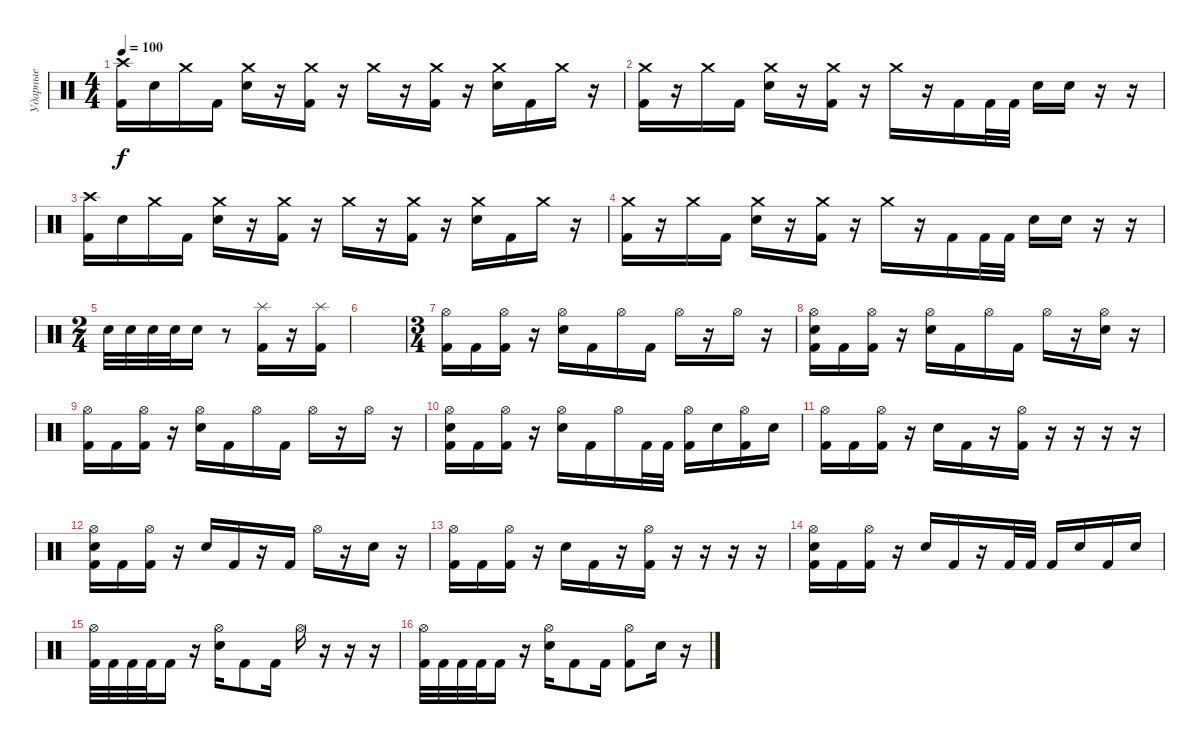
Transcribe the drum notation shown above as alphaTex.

\track ("Ударные" "Ударные") {instrument percussion}
\staff {score}
\articulation defaults
\ts (4 4)
\tempo 100
\clef neutral
\ks c
("Crash high (hit)" "Kick (hit) 2").16{dy f} "Electric Snare (hit)".16 "Crash medium (hit)".16 "Kick (hit) 2".16 ("Crash medium (hit)" "Electric Snare (hit)").16 r.16 ("Crash medium (hit)" "Kick (hit) 2").16 r.16 "Crash medium (hit)".16 r.16 ("Crash medium (hit)" "Kick (hit) 2").16 r.16 ("Crash medium (hit)" "Electric Snare (hit)").16 "Kick (hit) 2".16 "Crash medium (hit)".16 r.16 |
("Crash medium (hit)" "Kick (hit) 2").16 r.16 "Crash medium (hit)".16 "Kick (hit) 2".16 ("Crash medium (hit)" "Electric Snare (hit)").16 r.16 ("Crash medium (hit)" "Kick (hit) 2").16 r.16 "Crash medium (hit)".16 r.16 "Kick (hit) 2".16 "Kick (hit) 2".32 "Kick (hit) 2".32 "Electric Snare (hit)".16 "Electric Snare (hit)".16 r.16 r.16 |
("Crash high (hit)" "Kick (hit) 2").16 "Electric Snare (hit)".16 "Crash medium (hit)".16 "Kick (hit) 2".16 ("Crash medium (hit)" "Electric Snare (hit)").16 r.16 ("Crash medium (hit)" "Kick (hit) 2").16 r.16 "Crash medium (hit)".16 r.16 ("Crash medium (hit)" "Kick (hit) 2").16 r.16 ("Crash medium (hit)" "Electric Snare (hit)").16 "Kick (hit) 2".16 "Crash medium (hit)".16 r.16 |
("Crash medium (hit)" "Kick (hit) 2").16 r.16 "Crash medium (hit)".16 "Kick (hit) 2".16 ("Crash medium (hit)" "Electric Snare (hit)").16 r.16 ("Crash medium (hit)" "Kick (hit) 2").16 r.16 "Crash medium (hit)".16 r.16 "Kick (hit) 2".16 "Kick (hit) 2".32 "Kick (hit) 2".32 "Electric Snare (hit)".16 "Electric Snare (hit)".16 r.16 r.16 |
\ts (2 4)
"Electric Snare (hit)".32 "Electric Snare (hit)".32 "Electric Snare (hit)".32 "Electric Snare (hit)".32 "Electric Snare (hit)".16 r.8 ("Splash (hit)" "Kick (hit) 2").16 r.16 ("Splash (hit)" "Kick (hit) 2").16 |
|
\ts (3 4)
("Hi-Hat (open)" "Kick (hit) 2").16 "Kick (hit) 2".16 ("Hi-Hat (open)" "Kick (hit) 2").16 r.16 ("Hi-Hat (open)" "Electric Snare (hit)").16 "Kick (hit) 2".16 "Hi-Hat (open)".16 "Kick (hit) 2".16 "Hi-Hat (open)".16 r.16 "Hi-Hat (open)".16 r.16 |
("Hi-Hat (open)" "Electric Snare (hit)" "Kick (hit) 2").16 "Kick (hit) 2".16 ("Hi-Hat (open)" "Kick (hit) 2").16 r.16 ("Hi-Hat (open)" "Electric Snare (hit)").16 "Kick (hit) 2".16 "Hi-Hat (open)".16 "Kick (hit) 2".16 "Hi-Hat (open)".16 r.16 ("Hi-Hat (open)" "Electric Snare (hit)").16 r.16 |
("Hi-Hat (open)" "Kick (hit) 2").16 "Kick (hit) 2".16 ("Hi-Hat (open)" "Kick (hit) 2").16 r.16 ("Hi-Hat (open)" "Electric Snare (hit)").16 "Kick (hit) 2".16 "Hi-Hat (open)".16 "Kick (hit) 2".16 "Hi-Hat (open)".16 r.16 "Hi-Hat (open)".16 r.16 |
("Hi-Hat (open)" "Electric Snare (hit)" "Kick (hit) 2").16 "Kick (hit) 2".16 ("Hi-Hat (open)" "Kick (hit) 2").16 r.16 ("Hi-Hat (open)" "Electric Snare (hit)").16 "Kick (hit) 2".16 "Hi-Hat (open)".16 "Kick (hit) 2".32 "Kick (hit) 2".32 ("Hi-Hat (open)" "Kick (hit) 2").16 "Electric Snare (hit)".16 ("Hi-Hat (open)" "Kick (hit) 2").16 "Electric Snare (hit)".16 |
("Hi-Hat (open)" "Kick (hit) 2").16 "Kick (hit) 2".16 ("Hi-Hat (open)" "Kick (hit) 2").16 r.16 "Electric Snare (hit)".16 "Kick (hit) 2".16 r.16 ("Hi-Hat (open)" "Kick (hit) 2").16 r.16 r.16 r.16 r.16 |
("Hi-Hat (open)" "Electric Snare (hit)" "Kick (hit) 2").16 "Kick (hit) 2".16 ("Hi-Hat (open)" "Kick (hit) 2").16 r.16 "Electric Snare (hit)".16 "Kick (hit) 2".16 r.16 "Kick (hit) 2".16 "Hi-Hat (open)".16 r.16 "Electric Snare (hit)".16 r.16 |
("Hi-Hat (open)" "Kick (hit) 2").16 "Kick (hit) 2".16 ("Hi-Hat (open)" "Kick (hit) 2").16 r.16 "Electric Snare (hit)".16 "Kick (hit) 2".16 r.16 ("Hi-Hat (open)" "Kick (hit) 2").16 r.16 r.16 r.16 r.16 |
("Hi-Hat (open)" "Electric Snare (hit)" "Kick (hit) 2").16 "Kick (hit) 2".16 ("Hi-Hat (open)" "Kick (hit) 2").16 r.16 "Electric Snare (hit)".16 "Kick (hit) 2".16 r.16 "Kick (hit) 2".32 "Kick (hit) 2".32 "Kick (hit) 2".16 "Electric Snare (hit)".16 "Kick (hit) 2".16 "Electric Snare (hit)".16 |
("Hi-Hat (open)" "Kick (hit) 2").32 "Kick (hit) 2".32 "Kick (hit) 2".32 "Kick (hit) 2".32 "Kick (hit) 2".16 r.16 ("Hi-Hat (open)" "Electric Snare (hit)").16 "Kick (hit) 2".8 "Kick (hit) 2".16 "Hi-Hat (open)".16 r.16 r.16 r.16 |
("Hi-Hat (open)" "Kick (hit) 2").32 "Kick (hit) 2".32 "Kick (hit) 2".32 "Kick (hit) 2".32 "Kick (hit) 2".16 r.16 ("Hi-Hat (open)" "Electric Snare (hit)").16 "Kick (hit) 2".8 "Kick (hit) 2".16 ("Hi-Hat (open)" "Kick (hit) 2").8 "Electric Snare (hit)".16 r.16
